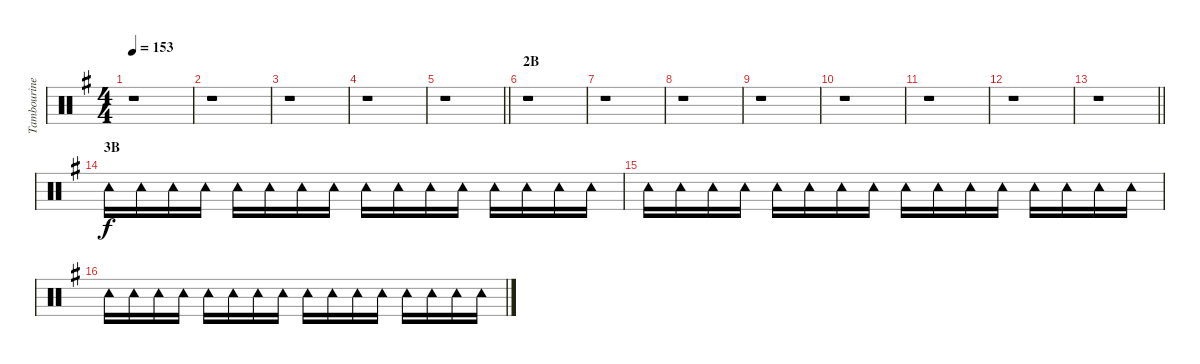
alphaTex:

\track ("Tambourine" "Tambourine") {instrument percussion}
\staff {score}
\articulation defaults
\ts (4 4)
\tempo 153
\clef neutral
\ks g
r.1{dy f} |
r.1 |
r.1 |
r.1 |
\barLineRight lightlight
r.1 |
\section ("" "2B")
r.1 |
r.1 |
r.1 |
r.1 |
r.1 |
r.1 |
r.1 |
\barLineRight lightlight
r.1 |
\section ("" "3B")
"Tambourine (hit)".16 "Tambourine (hit)".16 "Tambourine (hit)".16 "Tambourine (hit)".16 "Tambourine (hit)".16 "Tambourine (hit)".16 "Tambourine (hit)".16 "Tambourine (hit)".16 "Tambourine (hit)".16 "Tambourine (hit)".16 "Tambourine (hit)".16 "Tambourine (hit)".16 "Tambourine (hit)".16 "Tambourine (hit)".16 "Tambourine (hit)".16 "Tambourine (hit)".16 |
"Tambourine (hit)".16 "Tambourine (hit)".16 "Tambourine (hit)".16 "Tambourine (hit)".16 "Tambourine (hit)".16 "Tambourine (hit)".16 "Tambourine (hit)".16 "Tambourine (hit)".16 "Tambourine (hit)".16 "Tambourine (hit)".16 "Tambourine (hit)".16 "Tambourine (hit)".16 "Tambourine (hit)".16 "Tambourine (hit)".16 "Tambourine (hit)".16 "Tambourine (hit)".16 |
"Tambourine (hit)".16 "Tambourine (hit)".16 "Tambourine (hit)".16 "Tambourine (hit)".16 "Tambourine (hit)".16 "Tambourine (hit)".16 "Tambourine (hit)".16 "Tambourine (hit)".16 "Tambourine (hit)".16 "Tambourine (hit)".16 "Tambourine (hit)".16 "Tambourine (hit)".16 "Tambourine (hit)".16 "Tambourine (hit)".16 "Tambourine (hit)".16 "Tambourine (hit)".16
